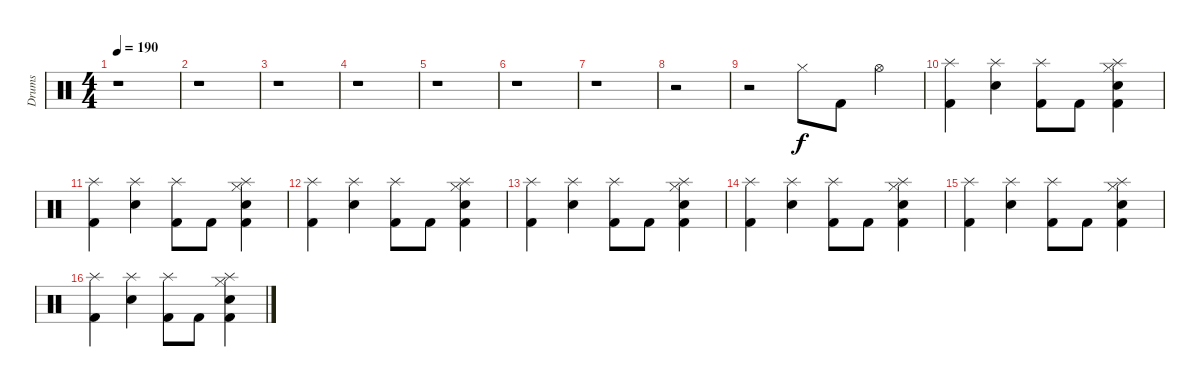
\track ("Drums" "Drums") {instrument percussion}
\staff {score}
\articulation defaults
\ts (4 4)
\tempo 190
\clef neutral
\ks c
r.1{dy f} |
r.1 |
r.1 |
r.1 |
r.1 |
r.1 |
r.1 |
r.2 |
r.2 "Hi-Hat (closed)".8 "Kick (hit) 2".8 "Hi-Hat (open)".4 |
("Splash (hit)" "Kick (hit) 2").4 ("Splash (hit)" "Electric Snare (hit)").4 ("Splash (hit)" "Kick (hit) 2").8 "Kick (hit) 2".8 ("Splash (hit)" "Hi-Hat (closed)" "Electric Snare (hit)" "Kick (hit) 2").4 |
("Splash (hit)" "Kick (hit) 2").4 ("Splash (hit)" "Electric Snare (hit)").4 ("Splash (hit)" "Kick (hit) 2").8 "Kick (hit) 2".8 ("Splash (hit)" "Hi-Hat (closed)" "Electric Snare (hit)" "Kick (hit) 2").4 |
("Splash (hit)" "Kick (hit) 2").4 ("Splash (hit)" "Electric Snare (hit)").4 ("Splash (hit)" "Kick (hit) 2").8 "Kick (hit) 2".8 ("Splash (hit)" "Hi-Hat (closed)" "Electric Snare (hit)" "Kick (hit) 2").4 |
("Splash (hit)" "Kick (hit) 2").4 ("Splash (hit)" "Electric Snare (hit)").4 ("Splash (hit)" "Kick (hit) 2").8 "Kick (hit) 2".8 ("Splash (hit)" "Hi-Hat (closed)" "Electric Snare (hit)" "Kick (hit) 2").4 |
("Splash (hit)" "Kick (hit) 2").4 ("Splash (hit)" "Electric Snare (hit)").4 ("Splash (hit)" "Kick (hit) 2").8 "Kick (hit) 2".8 ("Splash (hit)" "Hi-Hat (closed)" "Electric Snare (hit)" "Kick (hit) 2").4 |
("Splash (hit)" "Kick (hit) 2").4 ("Splash (hit)" "Electric Snare (hit)").4 ("Splash (hit)" "Kick (hit) 2").8 "Kick (hit) 2".8 ("Splash (hit)" "Hi-Hat (closed)" "Electric Snare (hit)" "Kick (hit) 2").4 |
("Splash (hit)" "Kick (hit) 2").4 ("Splash (hit)" "Electric Snare (hit)").4 ("Splash (hit)" "Kick (hit) 2").8 "Kick (hit) 2".8 ("Splash (hit)" "Hi-Hat (closed)" "Electric Snare (hit)" "Kick (hit) 2").4
